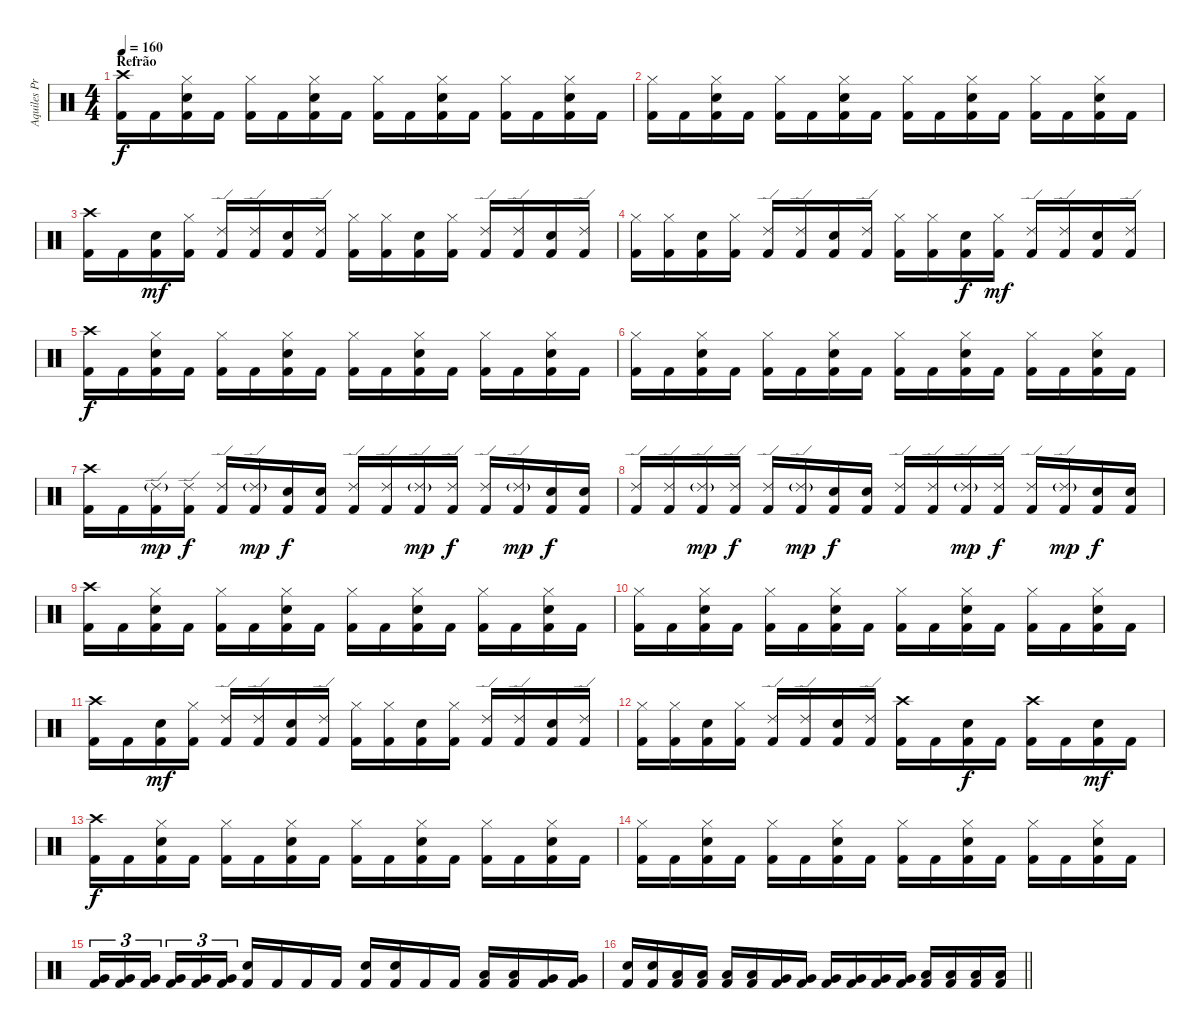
\track ("Aquiles Priester" "Aquiles Pr") {instrument percussion}
\staff {score}
\articulation defaults
\ts (4 4)
\section ("" "Refrão")
\tempo 160
\clef neutral
\ks c
("Crash high (hit)" "Kick (hit) 2").16{dy f} "Kick (hit) 2".16 ("Hi-Hat (closed)" "Electric Snare (hit)" "Kick (hit) 2").16 "Kick (hit) 2".16 ("Hi-Hat (closed)" "Kick (hit) 2").16 "Kick (hit) 2".16 ("Hi-Hat (closed)" "Electric Snare (hit)" "Kick (hit) 2").16 "Kick (hit) 2".16 ("Hi-Hat (closed)" "Kick (hit) 2").16 "Kick (hit) 2".16 ("Hi-Hat (closed)" "Electric Snare (hit)" "Kick (hit) 2").16 "Kick (hit) 2".16 ("Hi-Hat (closed)" "Kick (hit) 2").16 "Kick (hit) 2".16 ("Hi-Hat (closed)" "Electric Snare (hit)" "Kick (hit) 2").16 "Kick (hit) 2".16 |
("Hi-Hat (closed)" "Kick (hit) 2").16 "Kick (hit) 2".16 ("Hi-Hat (closed)" "Electric Snare (hit)" "Kick (hit) 2").16 "Kick (hit) 2".16 ("Hi-Hat (closed)" "Kick (hit) 2").16 "Kick (hit) 2".16 ("Hi-Hat (closed)" "Electric Snare (hit)" "Kick (hit) 2").16 "Kick (hit) 2".16 ("Hi-Hat (closed)" "Kick (hit) 2").16 "Kick (hit) 2".16 ("Hi-Hat (closed)" "Electric Snare (hit)" "Kick (hit) 2").16 "Kick (hit) 2".16 ("Hi-Hat (closed)" "Kick (hit) 2").16 "Kick (hit) 2".16 ("Hi-Hat (closed)" "Electric Snare (hit)" "Kick (hit) 2").16 "Kick (hit) 2".16 |
("Crash high (hit)" "Kick (hit) 2").16 "Kick (hit) 2".16 ("Electric Snare (hit)" "Kick (hit) 2").16{dy mf} ("Hi-Hat (closed)" "Kick (hit) 2").16 ("Ride (edge) 2" "Kick (hit) 2").16 ("Ride (edge) 2" "Kick (hit) 2").16 ("Electric Snare (hit)" "Kick (hit) 2").16 ("Ride (edge) 2" "Kick (hit) 2").16 ("Hi-Hat (closed)" "Kick (hit) 2").16 ("Hi-Hat (closed)" "Kick (hit) 2").16 ("Electric Snare (hit)" "Kick (hit) 2").16 ("Hi-Hat (closed)" "Kick (hit) 2").16 ("Ride (edge) 2" "Kick (hit) 2").16 ("Ride (edge) 2" "Kick (hit) 2").16 ("Electric Snare (hit)" "Kick (hit) 2").16 ("Ride (edge) 2" "Kick (hit) 2").16 |
("Hi-Hat (closed)" "Kick (hit) 2").16 ("Hi-Hat (closed)" "Kick (hit) 2").16 ("Electric Snare (hit)" "Kick (hit) 2").16 ("Hi-Hat (closed)" "Kick (hit) 2").16 ("Ride (edge) 2" "Kick (hit) 2").16 ("Ride (edge) 2" "Kick (hit) 2").16 ("Electric Snare (hit)" "Kick (hit) 2").16 ("Ride (edge) 2" "Kick (hit) 2").16 ("Hi-Hat (closed)" "Kick (hit) 2").16 ("Hi-Hat (closed)" "Kick (hit) 2").16 ("Electric Snare (hit)" "Kick (hit) 2").16{dy f} ("Hi-Hat (closed)" "Kick (hit) 2").16{dy mf} ("Ride (edge) 2" "Kick (hit) 2").16 ("Ride (edge) 2" "Kick (hit) 2").16 ("Electric Snare (hit)" "Kick (hit) 2").16 ("Ride (edge) 2" "Kick (hit) 2").16 |
("Crash high (hit)" "Kick (hit) 2").16{dy f} "Kick (hit) 2".16 ("Hi-Hat (closed)" "Electric Snare (hit)" "Kick (hit) 2").16 "Kick (hit) 2".16 ("Hi-Hat (closed)" "Kick (hit) 2").16 "Kick (hit) 2".16 ("Hi-Hat (closed)" "Electric Snare (hit)" "Kick (hit) 2").16 "Kick (hit) 2".16 ("Hi-Hat (closed)" "Kick (hit) 2").16 "Kick (hit) 2".16 ("Hi-Hat (closed)" "Electric Snare (hit)" "Kick (hit) 2").16 "Kick (hit) 2".16 ("Hi-Hat (closed)" "Kick (hit) 2").16 "Kick (hit) 2".16 ("Hi-Hat (closed)" "Electric Snare (hit)" "Kick (hit) 2").16 "Kick (hit) 2".16 |
("Hi-Hat (closed)" "Kick (hit) 2").16 "Kick (hit) 2".16 ("Hi-Hat (closed)" "Electric Snare (hit)" "Kick (hit) 2").16 "Kick (hit) 2".16 ("Hi-Hat (closed)" "Kick (hit) 2").16 "Kick (hit) 2".16 ("Hi-Hat (closed)" "Electric Snare (hit)" "Kick (hit) 2").16 "Kick (hit) 2".16 ("Hi-Hat (closed)" "Kick (hit) 2").16 "Kick (hit) 2".16 ("Hi-Hat (closed)" "Electric Snare (hit)" "Kick (hit) 2").16 "Kick (hit) 2".16 ("Hi-Hat (closed)" "Kick (hit) 2").16 "Kick (hit) 2".16 ("Hi-Hat (closed)" "Electric Snare (hit)" "Kick (hit) 2").16 "Kick (hit) 2".16 |
("Crash high (hit)" "Kick (hit) 2").16 "Kick (hit) 2".16 ("Ride (edge) 2"{g} "Kick (hit) 2").16{dy mp} ("Ride (edge) 2" "Kick (hit) 2").16{dy f} ("Ride (edge) 2" "Kick (hit) 2").16 ("Ride (edge) 2"{g} "Kick (hit) 2").16{dy mp} ("Electric Snare (hit)" "Kick (hit) 2").16{dy f} ("Electric Snare (hit)" "Kick (hit) 2").16 ("Ride (edge) 2" "Kick (hit) 2").16 ("Ride (edge) 2" "Kick (hit) 2").16 ("Ride (edge) 2"{g} "Kick (hit) 2").16{dy mp} ("Ride (edge) 2" "Kick (hit) 2").16{dy f} ("Ride (edge) 2" "Kick (hit) 2").16 ("Ride (edge) 2"{g} "Kick (hit) 2").16{dy mp} ("Electric Snare (hit)" "Kick (hit) 2").16{dy f} ("Electric Snare (hit)" "Kick (hit) 2").16 |
("Ride (edge) 2" "Kick (hit) 2").16 ("Ride (edge) 2" "Kick (hit) 2").16 ("Ride (edge) 2"{g} "Kick (hit) 2").16{dy mp} ("Ride (edge) 2" "Kick (hit) 2").16{dy f} ("Ride (edge) 2" "Kick (hit) 2").16 ("Ride (edge) 2"{g} "Kick (hit) 2").16{dy mp} ("Electric Snare (hit)" "Kick (hit) 2").16{dy f} ("Electric Snare (hit)" "Kick (hit) 2").16 ("Ride (edge) 2" "Kick (hit) 2").16 ("Ride (edge) 2" "Kick (hit) 2").16 ("Ride (edge) 2"{g} "Kick (hit) 2").16{dy mp} ("Ride (edge) 2" "Kick (hit) 2").16{dy f} ("Ride (edge) 2" "Kick (hit) 2").16 ("Ride (edge) 2"{g} "Kick (hit) 2").16{dy mp} ("Electric Snare (hit)" "Kick (hit) 2").16{dy f} ("Electric Snare (hit)" "Kick (hit) 2").16 |
("Crash high (hit)" "Kick (hit) 2").16 "Kick (hit) 2".16 ("Hi-Hat (closed)" "Electric Snare (hit)" "Kick (hit) 2").16 "Kick (hit) 2".16 ("Hi-Hat (closed)" "Kick (hit) 2").16 "Kick (hit) 2".16 ("Hi-Hat (closed)" "Electric Snare (hit)" "Kick (hit) 2").16 "Kick (hit) 2".16 ("Hi-Hat (closed)" "Kick (hit) 2").16 "Kick (hit) 2".16 ("Hi-Hat (closed)" "Electric Snare (hit)" "Kick (hit) 2").16 "Kick (hit) 2".16 ("Hi-Hat (closed)" "Kick (hit) 2").16 "Kick (hit) 2".16 ("Hi-Hat (closed)" "Electric Snare (hit)" "Kick (hit) 2").16 "Kick (hit) 2".16 |
("Hi-Hat (closed)" "Kick (hit) 2").16 "Kick (hit) 2".16 ("Hi-Hat (closed)" "Electric Snare (hit)" "Kick (hit) 2").16 "Kick (hit) 2".16 ("Hi-Hat (closed)" "Kick (hit) 2").16 "Kick (hit) 2".16 ("Hi-Hat (closed)" "Electric Snare (hit)" "Kick (hit) 2").16 "Kick (hit) 2".16 ("Hi-Hat (closed)" "Kick (hit) 2").16 "Kick (hit) 2".16 ("Hi-Hat (closed)" "Electric Snare (hit)" "Kick (hit) 2").16 "Kick (hit) 2".16 ("Hi-Hat (closed)" "Kick (hit) 2").16 "Kick (hit) 2".16 ("Hi-Hat (closed)" "Electric Snare (hit)" "Kick (hit) 2").16 "Kick (hit) 2".16 |
("Crash high (hit)" "Kick (hit) 2").16 "Kick (hit) 2".16 ("Electric Snare (hit)" "Kick (hit) 2").16{dy mf} ("Hi-Hat (closed)" "Kick (hit) 2").16 ("Ride (edge) 2" "Kick (hit) 2").16 ("Ride (edge) 2" "Kick (hit) 2").16 ("Electric Snare (hit)" "Kick (hit) 2").16 ("Ride (edge) 2" "Kick (hit) 2").16 ("Hi-Hat (closed)" "Kick (hit) 2").16 ("Hi-Hat (closed)" "Kick (hit) 2").16 ("Electric Snare (hit)" "Kick (hit) 2").16 ("Hi-Hat (closed)" "Kick (hit) 2").16 ("Ride (edge) 2" "Kick (hit) 2").16 ("Ride (edge) 2" "Kick (hit) 2").16 ("Electric Snare (hit)" "Kick (hit) 2").16 ("Ride (edge) 2" "Kick (hit) 2").16 |
("Hi-Hat (closed)" "Kick (hit) 2").16 ("Hi-Hat (closed)" "Kick (hit) 2").16 ("Electric Snare (hit)" "Kick (hit) 2").16 ("Hi-Hat (closed)" "Kick (hit) 2").16 ("Ride (edge) 2" "Kick (hit) 2").16 ("Ride (edge) 2" "Kick (hit) 2").16 ("Electric Snare (hit)" "Kick (hit) 2").16 ("Ride (edge) 2" "Kick (hit) 2").16 ("Crash high (hit)" "Kick (hit) 2").16 "Kick (hit) 2".16 ("Electric Snare (hit)" "Kick (hit) 2").16{dy f} "Kick (hit) 2".16 ("Crash high (hit)" "Kick (hit) 2").16 "Kick (hit) 2".16 ("Electric Snare (hit)" "Kick (hit) 2").16{dy mf} "Kick (hit) 2".16 |
("Crash high (hit)" "Kick (hit) 2").16{dy f} "Kick (hit) 2".16 ("Hi-Hat (closed)" "Electric Snare (hit)" "Kick (hit) 2").16 "Kick (hit) 2".16 ("Hi-Hat (closed)" "Kick (hit) 2").16 "Kick (hit) 2".16 ("Hi-Hat (closed)" "Electric Snare (hit)" "Kick (hit) 2").16 "Kick (hit) 2".16 ("Hi-Hat (closed)" "Kick (hit) 2").16 "Kick (hit) 2".16 ("Hi-Hat (closed)" "Electric Snare (hit)" "Kick (hit) 2").16 "Kick (hit) 2".16 ("Hi-Hat (closed)" "Kick (hit) 2").16 "Kick (hit) 2".16 ("Hi-Hat (closed)" "Electric Snare (hit)" "Kick (hit) 2").16 "Kick (hit) 2".16 |
("Hi-Hat (closed)" "Kick (hit) 2").16 "Kick (hit) 2".16 ("Hi-Hat (closed)" "Electric Snare (hit)" "Kick (hit) 2").16 "Kick (hit) 2".16 ("Hi-Hat (closed)" "Kick (hit) 2").16 "Kick (hit) 2".16 ("Hi-Hat (closed)" "Electric Snare (hit)" "Kick (hit) 2").16 "Kick (hit) 2".16 ("Hi-Hat (closed)" "Kick (hit) 2").16 "Kick (hit) 2".16 ("Hi-Hat (closed)" "Electric Snare (hit)" "Kick (hit) 2").16 "Kick (hit) 2".16 ("Hi-Hat (closed)" "Kick (hit) 2").16 "Kick (hit) 2".16 ("Hi-Hat (closed)" "Electric Snare (hit)" "Kick (hit) 2").16 "Kick (hit) 2".16 |
("Very Low Tom (hit)" "Kick (hit) 2").16{tu (3 2)} ("Very Low Tom (hit)" "Kick (hit) 2").16{tu (3 2)} ("Very Low Tom (hit)" "Kick (hit) 2").16{tu (3 2) beam splitsecondary} ("Very Low Tom (hit)" "Kick (hit) 2").16{tu (3 2)} ("Very Low Tom (hit)" "Kick (hit) 2").16{tu (3 2)} ("Very Low Tom (hit)" "Kick (hit) 2").16{tu (3 2)} ("Electric Snare (hit)" "Kick (hit) 2").16 "Kick (hit) 2".16 "Kick (hit) 2".16 "Kick (hit) 2".16 ("Electric Snare (hit)" "Kick (hit) 2").16 ("Electric Snare (hit)" "Kick (hit) 2").16 "Kick (hit) 2".16 "Kick (hit) 2".16 ("Low Tom (hit)" "Kick (hit) 2").16 ("Low Tom (hit)" "Kick (hit) 2").16 ("Very Low Tom (hit)" "Kick (hit) 2").16 ("Very Low Tom (hit)" "Kick (hit) 2").16 |
\barLineRight lightlight
("Electric Snare (hit)" "Kick (hit) 2").16 ("Electric Snare (hit)" "Kick (hit) 2").16 ("Low Tom (hit)" "Kick (hit) 2").16 ("Low Tom (hit)" "Kick (hit) 2").16 ("Low Tom (hit)" "Kick (hit) 2").16 ("Low Tom (hit)" "Kick (hit) 2").16 ("Very Low Tom (hit)" "Kick (hit) 2").16 ("Very Low Tom (hit)" "Kick (hit) 2").16 ("Very Low Tom (hit)" "Kick (hit) 2").16 ("Very Low Tom (hit)" "Kick (hit) 2").16 ("Very Low Tom (hit)" "Kick (hit) 2").16 ("Very Low Tom (hit)" "Kick (hit) 2").16 ("Low Floor Tom (hit)" "Kick (hit) 2").16 ("Low Floor Tom (hit)" "Kick (hit) 2").16 ("Low Floor Tom (hit)" "Kick (hit) 2").16 ("Low Floor Tom (hit)" "Kick (hit) 2").16
